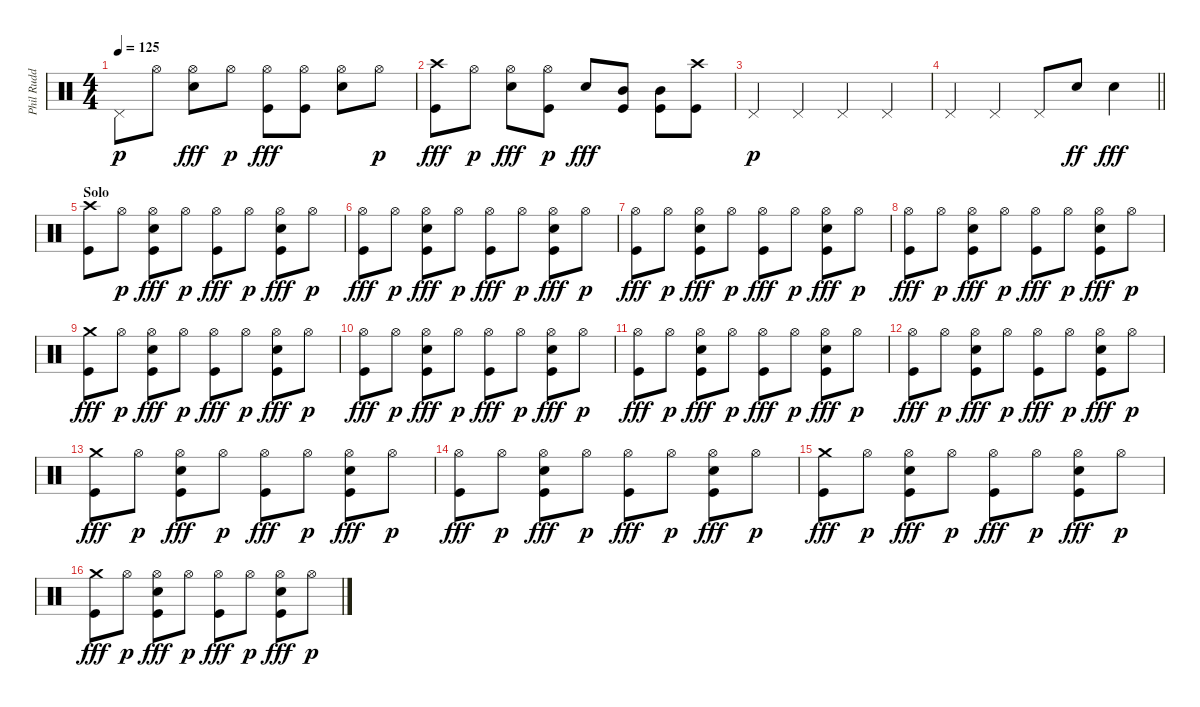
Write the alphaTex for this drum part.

\track ("Phil Rudd" "Phil Rudd") {instrument percussion}
\staff {score}
\articulation defaults
\ts (4 4)
\tempo 125
\clef neutral
\ks c "Pedal Hi-Hat (hit)".8{dy p} "Hi-Hat (open)".8
("Hi-Hat (open)" "Snare (hit) 2").8{dy fff} "Hi-Hat (open)".8{dy p} ("Hi-Hat (open)" "Kick (hit)").8{dy fff} ("Hi-Hat (open)" "Kick (hit)").8 ("Hi-Hat (open)" "Snare (hit) 2").8 "Hi-Hat (open)".8{dy p} |
("Crash high (hit)" "Kick (hit)").8{dy fff} "Hi-Hat (open)".8{dy p} ("Hi-Hat (open)" "Snare (hit) 2").8{dy fff} ("Hi-Hat (open)" "Kick (hit)").8{dy p} "Snare (hit) 2".8{dy fff} ("Mid Tom (hit)" "Kick (hit)").8 ("Mid Tom (hit)" "Kick (hit)").8 ("Crash high (hit)" "Kick (hit)").8 |
"Pedal Hi-Hat (hit)".4{dy p} "Pedal Hi-Hat (hit)".4 "Pedal Hi-Hat (hit)".4 "Pedal Hi-Hat (hit)".4 |
\barLineRight lightlight "Pedal Hi-Hat (hit)".4 "Pedal Hi-Hat (hit)".4 "Pedal Hi-Hat (hit)".8 "Snare (hit) 2".8{dy ff} "Snare (hit) 2".4{dy fff}
|
\section ("" "Solo")
("Crash high (hit)" "Kick (hit)").8 "Hi-Hat (open)".8{dy p} ("Hi-Hat (open)" "Snare (hit) 2" "Kick (hit)").8{dy fff} "Hi-Hat (open)".8{dy p} ("Hi-Hat (open)" "Kick (hit)").8{dy fff} "Hi-Hat (open)".8{dy p} ("Hi-Hat (open)" "Snare (hit) 2" "Kick (hit)").8{dy fff} "Hi-Hat (open)".8{dy p} |
("Hi-Hat (open)" "Kick (hit)").8{dy fff} "Hi-Hat (open)".8{dy p} ("Hi-Hat (open)" "Snare (hit) 2" "Kick (hit)").8{dy fff} "Hi-Hat (open)".8{dy p} ("Hi-Hat (open)" "Kick (hit)").8{dy fff} "Hi-Hat (open)".8{dy p} ("Hi-Hat (open)" "Snare (hit) 2" "Kick (hit)").8{dy fff} "Hi-Hat (open)".8{dy p} |
("Hi-Hat (open)" "Kick (hit)").8{dy fff} "Hi-Hat (open)".8{dy p} ("Hi-Hat (open)" "Snare (hit) 2" "Kick (hit)").8{dy fff} "Hi-Hat (open)".8{dy p} ("Hi-Hat (open)" "Kick (hit)").8{dy fff} "Hi-Hat (open)".8{dy p} ("Hi-Hat (open)" "Snare (hit) 2" "Kick (hit)").8{dy fff} "Hi-Hat (open)".8{dy p} |
("Hi-Hat (open)" "Kick (hit)").8{dy fff} "Hi-Hat (open)".8{dy p} ("Hi-Hat (open)" "Snare (hit) 2" "Kick (hit)").8{dy fff} "Hi-Hat (open)".8{dy p} ("Hi-Hat (open)" "Kick (hit)").8{dy fff} "Hi-Hat (open)".8{dy p} ("Hi-Hat (open)" "Snare (hit) 2" "Kick (hit)").8{dy fff} "Hi-Hat (open)".8{dy p} |
("Crash medium (hit)" "Kick (hit)").8{dy fff} "Hi-Hat (open)".8{dy p} ("Hi-Hat (open)" "Snare (hit) 2" "Kick (hit)").8{dy fff} "Hi-Hat (open)".8{dy p} ("Hi-Hat (open)" "Kick (hit)").8{dy fff} "Hi-Hat (open)".8{dy p} ("Hi-Hat (open)" "Snare (hit) 2" "Kick (hit)").8{dy fff} "Hi-Hat (open)".8{dy p} |
("Hi-Hat (open)" "Kick (hit)").8{dy fff} "Hi-Hat (open)".8{dy p} ("Hi-Hat (open)" "Snare (hit) 2" "Kick (hit)").8{dy fff} "Hi-Hat (open)".8{dy p} ("Hi-Hat (open)" "Kick (hit)").8{dy fff} "Hi-Hat (open)".8{dy p} ("Hi-Hat (open)" "Snare (hit) 2" "Kick (hit)").8{dy fff} "Hi-Hat (open)".8{dy p} |
("Hi-Hat (open)" "Kick (hit)").8{dy fff} "Hi-Hat (open)".8{dy p} ("Hi-Hat (open)" "Snare (hit) 2" "Kick (hit)").8{dy fff} "Hi-Hat (open)".8{dy p} ("Hi-Hat (open)" "Kick (hit)").8{dy fff} "Hi-Hat (open)".8{dy p} ("Hi-Hat (open)" "Snare (hit) 2" "Kick (hit)").8{dy fff} "Hi-Hat (open)".8{dy p} |
("Hi-Hat (open)" "Kick (hit)").8{dy fff} "Hi-Hat (open)".8{dy p} ("Hi-Hat (open)" "Snare (hit) 2" "Kick (hit)").8{dy fff} "Hi-Hat (open)".8{dy p} ("Hi-Hat (open)" "Kick (hit)").8{dy fff} "Hi-Hat (open)".8{dy p} ("Hi-Hat (open)" "Snare (hit) 2" "Kick (hit)").8{dy fff} "Hi-Hat (open)".8{dy p} |
("Crash medium (hit)" "Kick (hit)").8{dy fff} "Hi-Hat (open)".8{dy p} ("Hi-Hat (open)" "Snare (hit) 2" "Kick (hit)").8{dy fff} "Hi-Hat (open)".8{dy p} ("Hi-Hat (open)" "Kick (hit)").8{dy fff} "Hi-Hat (open)".8{dy p} ("Hi-Hat (open)" "Snare (hit) 2" "Kick (hit)").8{dy fff} "Hi-Hat (open)".8{dy p} |
("Hi-Hat (open)" "Kick (hit)").8{dy fff} "Hi-Hat (open)".8{dy p} ("Hi-Hat (open)" "Snare (hit) 2" "Kick (hit)").8{dy fff} "Hi-Hat (open)".8{dy p} ("Hi-Hat (open)" "Kick (hit)").8{dy fff} "Hi-Hat (open)".8{dy p} ("Hi-Hat (open)" "Snare (hit) 2" "Kick (hit)").8{dy fff} "Hi-Hat (open)".8{dy p} |
("Crash medium (hit)" "Kick (hit)").8{dy fff} "Hi-Hat (open)".8{dy p} ("Hi-Hat (open)" "Snare (hit) 2" "Kick (hit)").8{dy fff} "Hi-Hat (open)".8{dy p} ("Hi-Hat (open)" "Kick (hit)").8{dy fff} "Hi-Hat (open)".8{dy p} ("Hi-Hat (open)" "Snare (hit) 2" "Kick (hit)").8{dy fff} "Hi-Hat (open)".8{dy p} |
("Crash medium (hit)" "Kick (hit)").8{dy fff} "Hi-Hat (open)".8{dy p} ("Hi-Hat (open)" "Snare (hit) 2" "Kick (hit)").8{dy fff} "Hi-Hat (open)".8{dy p} ("Hi-Hat (open)" "Kick (hit)").8{dy fff} "Hi-Hat (open)".8{dy p} ("Hi-Hat (open)" "Snare (hit) 2" "Kick (hit)").8{dy fff} "Hi-Hat (open)".8{dy p}
